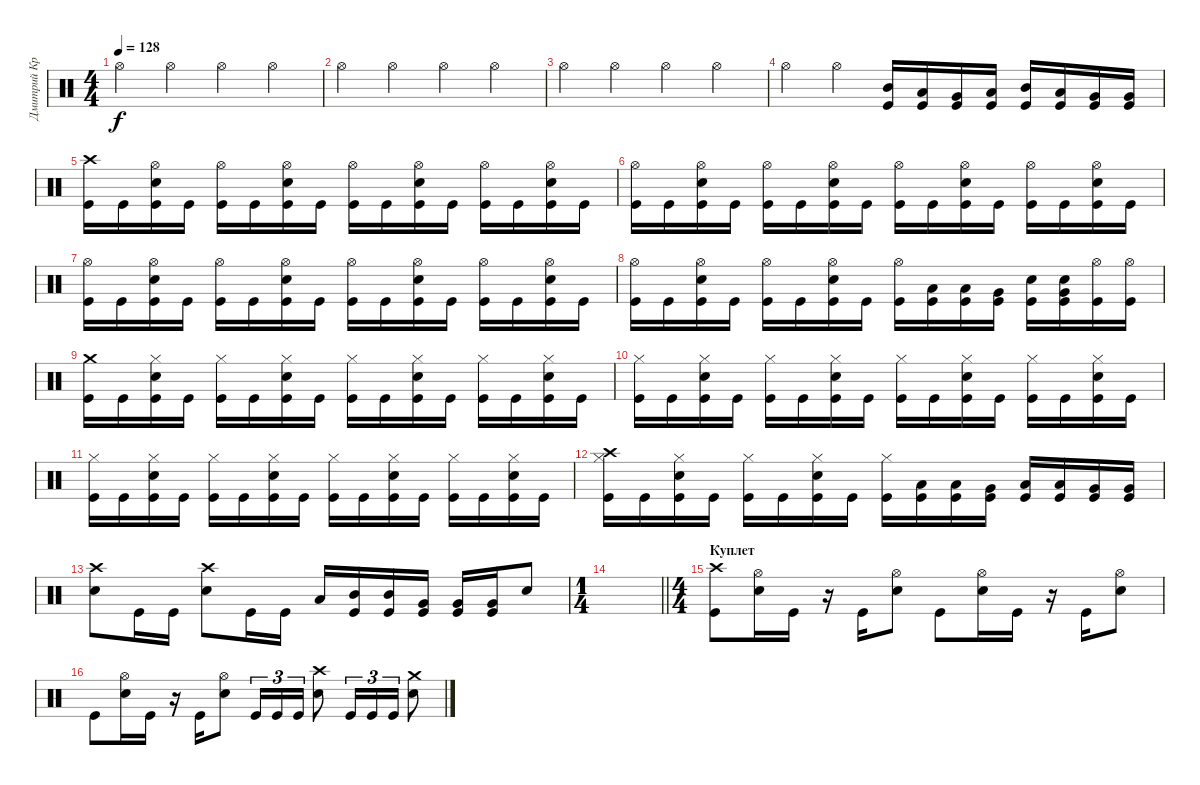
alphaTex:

\track ("Дмитрий Кривенков" "Дмитрий Кр") {instrument percussion}
\staff {score}
\articulation defaults
\ts (4 4)
\tempo 128
\clef neutral
\ks c "Hi-Hat (open)".4{dy f} "Hi-Hat (open)".4 "Hi-Hat (open)".4 "Hi-Hat (open)".4
|
"Hi-Hat (open)".4 "Hi-Hat (open)".4 "Hi-Hat (open)".4 "Hi-Hat (open)".4 |
"Hi-Hat (open)".4 "Hi-Hat (open)".4 "Hi-Hat (open)".4 "Hi-Hat (open)".4 |
"Hi-Hat (open)".4 "Hi-Hat (open)".4 ("Mid Tom (hit)" "Kick (hit)").16 ("Low Tom (hit)" "Kick (hit)").16 ("Very Low Tom (hit)" "Kick (hit)").16 ("Low Floor Tom (hit)" "Kick (hit)").16 ("Mid Tom (hit)" "Kick (hit)").16 ("Low Tom (hit)" "Kick (hit)").16 ("Very Low Tom (hit)" "Kick (hit)").16 ("Very Low Tom (hit)" "Kick (hit)").16 |
("Crash high (hit)" "Kick (hit)").16 "Kick (hit)".16 ("Snare (hit) 2" "Hi-Hat (open)" "Kick (hit)").16 "Kick (hit)".16 ("Hi-Hat (open)" "Kick (hit)").16 "Kick (hit)".16 ("Snare (hit) 2" "Hi-Hat (open)" "Kick (hit)").16 "Kick (hit)".16 ("Hi-Hat (open)" "Kick (hit)").16 "Kick (hit)".16 ("Snare (hit) 2" "Hi-Hat (open)" "Kick (hit)").16 "Kick (hit)".16 ("Hi-Hat (open)" "Kick (hit)").16 "Kick (hit)".16 ("Snare (hit) 2" "Hi-Hat (open)" "Kick (hit)").16 "Kick (hit)".16 |
("Hi-Hat (open)" "Kick (hit)").16 "Kick (hit)".16 ("Snare (hit) 2" "Hi-Hat (open)" "Kick (hit)").16 "Kick (hit)".16 ("Hi-Hat (open)" "Kick (hit)").16 "Kick (hit)".16 ("Snare (hit) 2" "Hi-Hat (open)" "Kick (hit)").16 "Kick (hit)".16 ("Hi-Hat (open)" "Kick (hit)").16 "Kick (hit)".16 ("Snare (hit) 2" "Hi-Hat (open)" "Kick (hit)").16 "Kick (hit)".16 ("Hi-Hat (open)" "Kick (hit)").16 "Kick (hit)".16 ("Snare (hit) 2" "Hi-Hat (open)" "Kick (hit)").16 "Kick (hit)".16 |
("Hi-Hat (open)" "Kick (hit)").16 "Kick (hit)".16 ("Snare (hit) 2" "Hi-Hat (open)" "Kick (hit)").16 "Kick (hit)".16 ("Hi-Hat (open)" "Kick (hit)").16 "Kick (hit)".16 ("Snare (hit) 2" "Hi-Hat (open)" "Kick (hit)").16 "Kick (hit)".16 ("Hi-Hat (open)" "Kick (hit)").16 "Kick (hit)".16 ("Snare (hit) 2" "Hi-Hat (open)" "Kick (hit)").16 "Kick (hit)".16 ("Hi-Hat (open)" "Kick (hit)").16 "Kick (hit)".16 ("Snare (hit) 2" "Hi-Hat (open)" "Kick (hit)").16 "Kick (hit)".16 |
("Hi-Hat (open)" "Kick (hit)").16 "Kick (hit)".16 ("Snare (hit) 2" "Hi-Hat (open)" "Kick (hit)").16 "Kick (hit)".16 ("Hi-Hat (open)" "Kick (hit)").16 "Kick (hit)".16 ("Snare (hit) 2" "Hi-Hat (open)" "Kick (hit)").16 "Kick (hit)".16 ("Hi-Hat (open)" "Kick (hit)").16 ("Low Tom (hit)" "Kick (hit)").16 ("Low Tom (hit)" "Kick (hit)").16 ("Very Low Tom (hit)" "Kick (hit)").16 ("Snare (hit) 2" "Kick (hit)").16 ("Snare (hit) 2" "Very Low Tom (hit)" "Kick (hit)").16 ("Hi-Hat (open)" "Kick (hit)").16 ("Hi-Hat (open)" "Kick (hit)").16 |
("Crash medium (hit)" "Kick (hit)").16 "Kick (hit)".16 ("Snare (hit) 2" "Hi-Hat (closed)" "Kick (hit)").16 "Kick (hit)".16 ("Hi-Hat (closed)" "Kick (hit)").16 "Kick (hit)".16 ("Snare (hit) 2" "Hi-Hat (closed)" "Kick (hit)").16 "Kick (hit)".16 ("Hi-Hat (closed)" "Kick (hit)").16 "Kick (hit)".16 ("Snare (hit) 2" "Hi-Hat (closed)" "Kick (hit)").16 "Kick (hit)".16 ("Hi-Hat (closed)" "Kick (hit)").16 "Kick (hit)".16 ("Snare (hit) 2" "Hi-Hat (closed)" "Kick (hit)").16 "Kick (hit)".16 |
("Hi-Hat (closed)" "Kick (hit)").16 "Kick (hit)".16 ("Snare (hit) 2" "Hi-Hat (closed)" "Kick (hit)").16 "Kick (hit)".16 ("Hi-Hat (closed)" "Kick (hit)").16 "Kick (hit)".16 ("Snare (hit) 2" "Hi-Hat (closed)" "Kick (hit)").16 "Kick (hit)".16 ("Hi-Hat (closed)" "Kick (hit)").16 "Kick (hit)".16 ("Snare (hit) 2" "Hi-Hat (closed)" "Kick (hit)").16 "Kick (hit)".16 ("Hi-Hat (closed)" "Kick (hit)").16 "Kick (hit)".16 ("Snare (hit) 2" "Hi-Hat (closed)" "Kick (hit)").16 "Kick (hit)".16 |
("Hi-Hat (closed)" "Kick (hit)").16 "Kick (hit)".16 ("Snare (hit) 2" "Hi-Hat (closed)" "Kick (hit)").16 "Kick (hit)".16 ("Hi-Hat (closed)" "Kick (hit)").16 "Kick (hit)".16 ("Snare (hit) 2" "Hi-Hat (closed)" "Kick (hit)").16 "Kick (hit)".16 ("Hi-Hat (closed)" "Kick (hit)").16 "Kick (hit)".16 ("Snare (hit) 2" "Hi-Hat (closed)" "Kick (hit)").16 "Kick (hit)".16 ("Hi-Hat (closed)" "Kick (hit)").16 "Kick (hit)".16 ("Snare (hit) 2" "Hi-Hat (closed)" "Kick (hit)").16 "Kick (hit)".16 |
("Crash high (hit)" "Hi-Hat (closed)" "Kick (hit)").16 "Kick (hit)".16 ("Snare (hit) 2" "Hi-Hat (closed)" "Kick (hit)").16 "Kick (hit)".16 ("Hi-Hat (closed)" "Kick (hit)").16 "Kick (hit)".16 ("Snare (hit) 2" "Hi-Hat (closed)" "Kick (hit)").16 "Kick (hit)".16 ("Hi-Hat (closed)" "Kick (hit)").16 ("Low Tom (hit)" "Kick (hit)").16 ("Low Tom (hit)" "Kick (hit)").16 ("Very Low Tom (hit)" "Kick (hit)").16 ("Low Tom (hit)" "Kick (hit)").16 ("Low Tom (hit)" "Kick (hit)").16 ("Very Low Tom (hit)" "Kick (hit)").16 ("Very Low Tom (hit)" "Kick (hit)").16 |
("Snare (hit) 2" "Crash high (hit)").8 "Kick (hit)".16 "Kick (hit)".16 ("Snare (hit) 2" "Crash high (hit)").8 "Kick (hit)".16 "Kick (hit)".16 "Low Tom (hit)".16 ("Mid Tom (hit)" "Kick (hit)").16 ("Mid Tom (hit)" "Kick (hit)").16 ("Very Low Tom (hit)" "Kick (hit)").16 ("Very Low Tom (hit)" "Kick (hit)").16 ("Very Low Tom (hit)" "Kick (hit)").16 "Snare (hit) 2".8 |
\ts (1 4)
\barLineRight lightlight
|
\ts (4 4)
\section ("" "Куплет")
("Crash high (hit)" "Kick (hit)").8 ("Snare (hit) 2" "Hi-Hat (open)").16 "Kick (hit)".16 r.16 "Kick (hit)".16 ("Snare (hit) 2" "Hi-Hat (open)").8 "Kick (hit)".8 ("Snare (hit) 2" "Hi-Hat (open)").16 "Kick (hit)".16 r.16 "Kick (hit)".16 ("Snare (hit) 2" "Hi-Hat (open)").8 |
"Kick (hit)".8 ("Snare (hit) 2" "Hi-Hat (open)").16 "Kick (hit)".16 r.16 "Kick (hit)".16 ("Snare (hit) 2" "Hi-Hat (open)").8 "Kick (hit)".16{tu (3 2)} "Kick (hit)".16{tu (3 2)} "Kick (hit)".16{tu (3 2)} ("Snare (hit) 2" "Crash high (hit)").8 "Kick (hit)".16{tu (3 2)} "Kick (hit)".16{tu (3 2)} "Kick (hit)".16{tu (3 2)} ("Snare (hit) 2" "Crash medium (hit)").8
